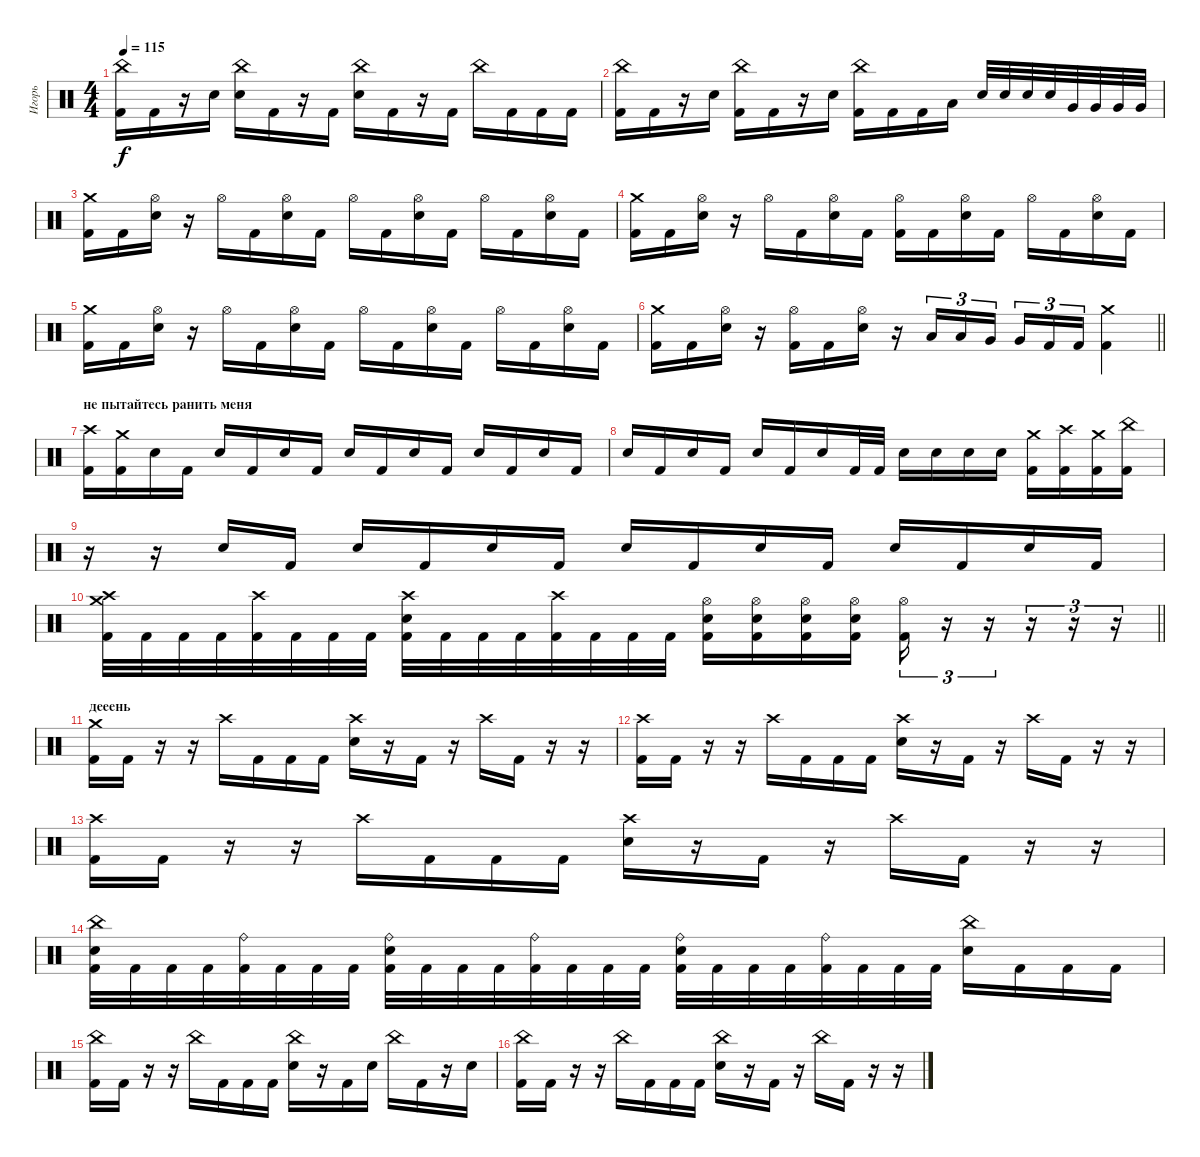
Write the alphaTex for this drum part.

\track ("Игорь" "Игорь") {instrument percussion}
\staff {score}
\articulation defaults
\ts (4 4)
\tempo 115
\clef neutral
\ks c
("China (hit)" "Kick (hit) 2").16{dy f} "Kick (hit) 2".16 r.16 "Electric Snare (hit)".16 ("China (hit)" "Electric Snare (hit)").16 "Kick (hit) 2".16 r.16 "Kick (hit) 2".16 ("China (hit)" "Electric Snare (hit)").16 "Kick (hit) 2".16 r.16 "Kick (hit) 2".16 "China (hit)".16 "Kick (hit) 2".16 "Kick (hit) 2".16 "Kick (hit) 2".16 |
("China (hit)" "Kick (hit) 2").16 "Kick (hit) 2".16 r.16 "Electric Snare (hit)".16 ("China (hit)" "Kick (hit) 2").16 "Kick (hit) 2".16 r.16 "Electric Snare (hit)".16 ("China (hit)" "Kick (hit) 2").16 "Kick (hit) 2".16 "Kick (hit) 2".16 "Low Tom (hit)".16 "Electric Snare (hit)".32 "Electric Snare (hit)".32 "Electric Snare (hit)".32 "Electric Snare (hit)".32 "Very Low Tom (hit)".32 "Very Low Tom (hit)".32 "Very Low Tom (hit)".32 "Very Low Tom (hit)".32 |
("Crash medium (hit)" "Kick (hit) 2").16 "Kick (hit) 2".16 ("Hi-Hat (open)" "Electric Snare (hit)").16 r.16 "Hi-Hat (open)".16 "Kick (hit) 2".16 ("Hi-Hat (open)" "Electric Snare (hit)").16 "Kick (hit) 2".16 "Hi-Hat (open)".16 "Kick (hit) 2".16 ("Hi-Hat (open)" "Electric Snare (hit)").16 "Kick (hit) 2".16 "Hi-Hat (open)".16 "Kick (hit) 2".16 ("Hi-Hat (open)" "Electric Snare (hit)").16 "Kick (hit) 2".16 |
("Crash medium (hit)" "Kick (hit) 2").16 "Kick (hit) 2".16 ("Hi-Hat (open)" "Electric Snare (hit)").16 r.16 "Hi-Hat (open)".16 "Kick (hit) 2".16 ("Hi-Hat (open)" "Electric Snare (hit)").16 "Kick (hit) 2".16 ("Hi-Hat (open)" "Kick (hit) 2").16 "Kick (hit) 2".16 ("Hi-Hat (open)" "Electric Snare (hit)").16 "Kick (hit) 2".16 "Hi-Hat (open)".16 "Kick (hit) 2".16 ("Hi-Hat (open)" "Electric Snare (hit)").16 "Kick (hit) 2".16 |
("Crash medium (hit)" "Kick (hit) 2").16 "Kick (hit) 2".16 ("Hi-Hat (open)" "Electric Snare (hit)").16 r.16 "Hi-Hat (open)".16 "Kick (hit) 2".16 ("Hi-Hat (open)" "Electric Snare (hit)").16 "Kick (hit) 2".16 "Hi-Hat (open)".16 "Kick (hit) 2".16 ("Hi-Hat (open)" "Electric Snare (hit)").16 "Kick (hit) 2".16 "Hi-Hat (open)".16 "Kick (hit) 2".16 ("Hi-Hat (open)" "Electric Snare (hit)").16 "Kick (hit) 2".16 |
\barLineRight lightlight
("Crash medium (hit)" "Kick (hit) 2").16 "Kick (hit) 2".16 ("Hi-Hat (open)" "Electric Snare (hit)").16 r.16 ("Hi-Hat (open)" "Kick (hit) 2").16 "Kick (hit) 2".16 ("Hi-Hat (open)" "Electric Snare (hit)").16 r.16 "Low Tom (hit)".16{tu (3 2)} "Low Tom (hit)".16{tu (3 2)} "Very Low Tom (hit)".16{tu (3 2) beam splitsecondary} "Very Low Tom (hit)".16{tu (3 2)} "Kick (hit) 2".16{tu (3 2)} "Kick (hit) 2".16{tu (3 2)} ("Crash medium (hit)" "Kick (hit) 2").4 |
\section ("" "не пытайтесь ранить меня")
("Crash high (hit)" "Kick (hit) 2").16 ("Crash medium (hit)" "Kick (hit) 2").16 "Electric Snare (hit)".16 "Kick (hit) 2".16 "Electric Snare (hit)".16 "Kick (hit) 2".16 "Electric Snare (hit)".16 "Kick (hit) 2".16 "Electric Snare (hit)".16 "Kick (hit) 2".16 "Electric Snare (hit)".16 "Kick (hit) 2".16 "Electric Snare (hit)".16 "Kick (hit) 2".16 "Electric Snare (hit)".16 "Kick (hit) 2".16 |
"Electric Snare (hit)".16 "Kick (hit) 2".16 "Electric Snare (hit)".16 "Kick (hit) 2".16 "Electric Snare (hit)".16 "Kick (hit) 2".16 "Electric Snare (hit)".16 "Kick (hit) 2".32 "Kick (hit) 2".32 "Electric Snare (hit)".16 "Electric Snare (hit)".16 "Electric Snare (hit)".16 "Electric Snare (hit)".16 ("Crash medium (hit)" "Kick (hit) 2").16 ("Crash high (hit)" "Kick (hit) 2").16 ("Crash medium (hit)" "Kick (hit) 2").16 ("China (hit)" "Kick (hit) 2").16 |
r.16 r.16 "Electric Snare (hit)".16 "Kick (hit) 2".16 "Electric Snare (hit)".16 "Kick (hit) 2".16 "Electric Snare (hit)".16 "Kick (hit) 2".16 "Electric Snare (hit)".16 "Kick (hit) 2".16 "Electric Snare (hit)".16 "Kick (hit) 2".16 "Electric Snare (hit)".16 "Kick (hit) 2".16 "Electric Snare (hit)".16 "Kick (hit) 2".16 |
\barLineRight lightlight
("Crash high (hit)" "Crash medium (hit)" "Kick (hit) 2").32 "Kick (hit) 2".32 "Kick (hit) 2".32 "Kick (hit) 2".32 ("Crash high (hit)" "Kick (hit) 2").32 "Kick (hit) 2".32 "Kick (hit) 2".32 "Kick (hit) 2".32 ("Crash high (hit)" "Electric Snare (hit)" "Kick (hit) 2").32 "Kick (hit) 2".32 "Kick (hit) 2".32 "Kick (hit) 2".32 ("Crash high (hit)" "Kick (hit) 2").32 "Kick (hit) 2".32 "Kick (hit) 2".32 "Kick (hit) 2".32 ("Hi-Hat (open)" "Electric Snare (hit)" "Kick (hit) 2").16 ("Hi-Hat (open)" "Electric Snare (hit)" "Kick (hit) 2").16 ("Hi-Hat (open)" "Electric Snare (hit)" "Kick (hit) 2").16 ("Hi-Hat (open)" "Electric Snare (hit)" "Kick (hit) 2").16 ("Hi-Hat (open)" "Kick (hit) 2").16{tu (3 2)} r.16{tu (3 2)} r.16{tu (3 2)} r.16{tu (3 2)} r.16{tu (3 2)} r.16{tu (3 2)} |
\section ("" "дееень")
("Crash medium (hit)" "Kick (hit) 2").16 "Kick (hit) 2".16 r.16 r.16 "Crash high (hit)".16 "Kick (hit) 2".16 "Kick (hit) 2".16 "Kick (hit) 2".16 ("Crash high (hit)" "Electric Snare (hit)").16 r.16 "Kick (hit) 2".16 r.16 "Crash high (hit)".16 "Kick (hit) 2".16 r.16 r.16 |
("Crash high (hit)" "Kick (hit) 2").16 "Kick (hit) 2".16 r.16 r.16 "Crash high (hit)".16 "Kick (hit) 2".16 "Kick (hit) 2".16 "Kick (hit) 2".16 ("Crash high (hit)" "Electric Snare (hit)").16 r.16 "Kick (hit) 2".16 r.16 "Crash high (hit)".16 "Kick (hit) 2".16 r.16 r.16 |
("Crash high (hit)" "Kick (hit) 2").16 "Kick (hit) 2".16 r.16 r.16 "Crash high (hit)".16 "Kick (hit) 2".16 "Kick (hit) 2".16 "Kick (hit) 2".16 ("Crash high (hit)" "Electric Snare (hit)").16 r.16 "Kick (hit) 2".16 r.16 "Crash high (hit)".16 "Kick (hit) 2".16 r.16 r.16 |
("China (hit)" "Electric Snare (hit)" "Kick (hit) 2").32 "Kick (hit) 2".32 "Kick (hit) 2".32 "Kick (hit) 2".32 ("Ride (bell)" "Kick (hit) 2").32 "Kick (hit) 2".32 "Kick (hit) 2".32 "Kick (hit) 2".32 ("Ride (bell)" "Electric Snare (hit)" "Kick (hit) 2").32 "Kick (hit) 2".32 "Kick (hit) 2".32 "Kick (hit) 2".32 ("Ride (bell)" "Kick (hit) 2").32 "Kick (hit) 2".32 "Kick (hit) 2".32 "Kick (hit) 2".32 ("Ride (bell)" "Electric Snare (hit)" "Kick (hit) 2").32 "Kick (hit) 2".32 "Kick (hit) 2".32 "Kick (hit) 2".32 ("Ride (bell)" "Kick (hit) 2").32 "Kick (hit) 2".32 "Kick (hit) 2".32 "Kick (hit) 2".32 ("China (hit)" "Electric Snare (hit)").16 "Kick (hit) 2".16 "Kick (hit) 2".16 "Kick (hit) 2".16 |
("China (hit)" "Kick (hit) 2").16 "Kick (hit) 2".16 r.16 r.16 "China (hit)".16 "Kick (hit) 2".16 "Kick (hit) 2".16 "Kick (hit) 2".16 ("China (hit)" "Electric Snare (hit)").16 r.16 "Kick (hit) 2".16 "Electric Snare (hit)".16 "China (hit)".16 "Kick (hit) 2".16 r.16 "Electric Snare (hit)".16 |
("China (hit)" "Kick (hit) 2").16 "Kick (hit) 2".16 r.16 r.16 "China (hit)".16 "Kick (hit) 2".16 "Kick (hit) 2".16 "Kick (hit) 2".16 ("China (hit)" "Electric Snare (hit)").16 r.16 "Kick (hit) 2".16 r.16 "China (hit)".16 "Kick (hit) 2".16 r.16 r.16
